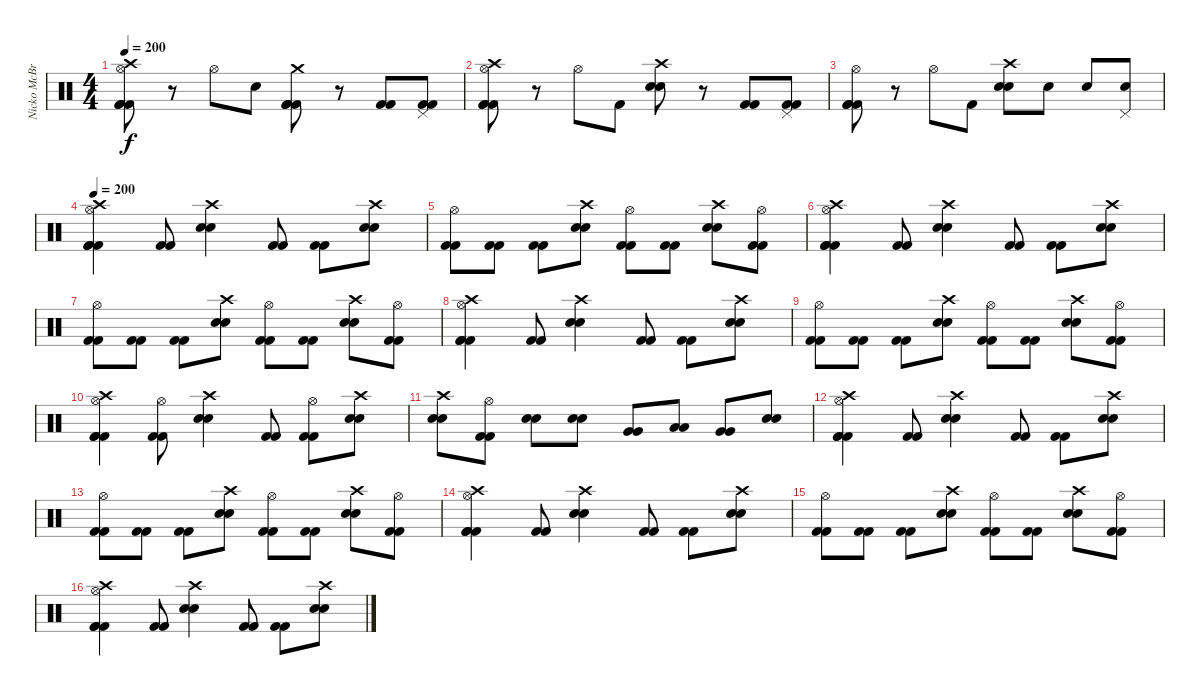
\track ("Nicko McBrain" "Nicko McBr") {instrument percussion}
\staff {score}
\articulation defaults
\ts (4 4)
\tempo 200
\clef neutral
\ks c
("Crash high (hit)" "Hi-Hat (open)" "Kick (hit) 2" "Kick (hit) 2" "Kick (hit) 2").8{dy f} r.8 "Hi-Hat (open)".8 "Snare (hit) 2".8 ("Crash medium (hit)" "Kick (hit) 2" "Kick (hit) 2" "Kick (hit) 2").8 r.8 ("Kick (hit) 2" "Kick (hit) 2").8 ("Pedal Hi-Hat (hit)" "Kick (hit) 2" "Kick (hit) 2").8 |
("Crash high (hit)" "Hi-Hat (open)" "Kick (hit) 2" "Kick (hit) 2" "Kick (hit) 2").8 r.8 "Hi-Hat (open)".8 "Kick (hit) 2".8 ("Crash high (hit)" "Snare (hit) 2" "Snare (hit) 2").8 r.8 ("Kick (hit) 2" "Kick (hit) 2").8 ("Pedal Hi-Hat (hit)" "Kick (hit) 2" "Kick (hit) 2").8 |
("Hi-Hat (open)" "Kick (hit) 2" "Kick (hit) 2" "Kick (hit) 2").8 r.8 "Hi-Hat (open)".8 "Kick (hit) 2".8 ("Crash high (hit)" "Snare (hit) 2" "Snare (hit) 2").8 "Snare (hit) 2".8 "Snare (hit) 2".8 ("Pedal Hi-Hat (hit)" "Snare (hit) 2").8 |
\tempo 200
("Crash high (hit)" "Hi-Hat (open)" "Kick (hit) 2" "Kick (hit) 2" "Kick (hit) 2").4 ("Kick (hit) 2" "Kick (hit) 2").8 ("Crash high (hit)" "Snare (hit) 2" "Snare (hit) 2").4 ("Kick (hit) 2" "Kick (hit) 2").8 ("Kick (hit) 2" "Kick (hit) 2").8 ("Crash high (hit)" "Snare (hit) 2" "Snare (hit) 2").8 |
("Hi-Hat (open)" "Kick (hit) 2" "Kick (hit) 2").8 ("Kick (hit) 2" "Kick (hit) 2").8 ("Kick (hit) 2" "Kick (hit) 2").8 ("Crash high (hit)" "Snare (hit) 2" "Snare (hit) 2").8 ("Hi-Hat (open)" "Kick (hit) 2" "Kick (hit) 2").8 ("Kick (hit) 2" "Kick (hit) 2").8 ("Crash high (hit)" "Snare (hit) 2" "Snare (hit) 2").8 ("Hi-Hat (open)" "Kick (hit) 2" "Kick (hit) 2").8 |
("Crash high (hit)" "Hi-Hat (open)" "Kick (hit) 2" "Kick (hit) 2" "Kick (hit) 2").4 ("Kick (hit) 2" "Kick (hit) 2").8 ("Crash high (hit)" "Snare (hit) 2" "Snare (hit) 2").4 ("Kick (hit) 2" "Kick (hit) 2").8 ("Kick (hit) 2" "Kick (hit) 2").8 ("Crash high (hit)" "Snare (hit) 2" "Snare (hit) 2").8 |
("Hi-Hat (open)" "Kick (hit) 2" "Kick (hit) 2").8 ("Kick (hit) 2" "Kick (hit) 2").8 ("Kick (hit) 2" "Kick (hit) 2").8 ("Crash high (hit)" "Snare (hit) 2" "Snare (hit) 2").8 ("Hi-Hat (open)" "Kick (hit) 2" "Kick (hit) 2").8 ("Kick (hit) 2" "Kick (hit) 2").8 ("Crash high (hit)" "Snare (hit) 2" "Snare (hit) 2").8 ("Hi-Hat (open)" "Kick (hit) 2" "Kick (hit) 2").8 |
("Crash high (hit)" "Hi-Hat (open)" "Kick (hit) 2" "Kick (hit) 2" "Kick (hit) 2").4 ("Kick (hit) 2" "Kick (hit) 2").8 ("Crash high (hit)" "Snare (hit) 2" "Snare (hit) 2").4 ("Kick (hit) 2" "Kick (hit) 2").8 ("Kick (hit) 2" "Kick (hit) 2").8 ("Crash high (hit)" "Snare (hit) 2" "Snare (hit) 2").8 |
("Hi-Hat (open)" "Kick (hit) 2" "Kick (hit) 2").8 ("Kick (hit) 2" "Kick (hit) 2").8 ("Kick (hit) 2" "Kick (hit) 2").8 ("Crash high (hit)" "Snare (hit) 2" "Snare (hit) 2").8 ("Hi-Hat (open)" "Kick (hit) 2" "Kick (hit) 2").8 ("Kick (hit) 2" "Kick (hit) 2").8 ("Crash high (hit)" "Snare (hit) 2" "Snare (hit) 2").8 ("Hi-Hat (open)" "Kick (hit) 2" "Kick (hit) 2").8 |
("Crash high (hit)" "Hi-Hat (open)" "Kick (hit) 2" "Kick (hit) 2" "Kick (hit) 2").4 ("Hi-Hat (open)" "Kick (hit) 2" "Kick (hit) 2").8 ("Crash high (hit)" "Snare (hit) 2" "Snare (hit) 2").4 ("Kick (hit) 2" "Kick (hit) 2").8 ("Hi-Hat (open)" "Kick (hit) 2" "Kick (hit) 2").8 ("Crash high (hit)" "Snare (hit) 2" "Snare (hit) 2").8 |
("Crash high (hit)" "Snare (hit) 2" "Snare (hit) 2").8 ("Hi-Hat (open)" "Kick (hit) 2" "Kick (hit) 2").8 ("Snare (hit) 2" "Snare (hit) 2").8 ("Snare (hit) 2" "Snare (hit) 2").8 ("Very Low Tom (hit)" "Very Low Tom (hit)").8 ("Low Floor Tom (hit)" "Low Floor Tom (hit)").8 ("Very Low Tom (hit)" "Very Low Tom (hit)").8 ("Snare (hit) 2" "Snare (hit) 2").8 |
("Crash high (hit)" "Hi-Hat (open)" "Kick (hit) 2" "Kick (hit) 2" "Kick (hit) 2").4 ("Kick (hit) 2" "Kick (hit) 2").8 ("Crash high (hit)" "Snare (hit) 2" "Snare (hit) 2").4 ("Kick (hit) 2" "Kick (hit) 2").8 ("Kick (hit) 2" "Kick (hit) 2").8 ("Crash high (hit)" "Snare (hit) 2" "Snare (hit) 2").8 |
("Hi-Hat (open)" "Kick (hit) 2" "Kick (hit) 2").8 ("Kick (hit) 2" "Kick (hit) 2").8 ("Kick (hit) 2" "Kick (hit) 2").8 ("Crash high (hit)" "Snare (hit) 2" "Snare (hit) 2").8 ("Hi-Hat (open)" "Kick (hit) 2" "Kick (hit) 2").8 ("Kick (hit) 2" "Kick (hit) 2").8 ("Crash high (hit)" "Snare (hit) 2" "Snare (hit) 2").8 ("Hi-Hat (open)" "Kick (hit) 2" "Kick (hit) 2").8 |
("Crash high (hit)" "Hi-Hat (open)" "Kick (hit) 2" "Kick (hit) 2" "Kick (hit) 2").4 ("Kick (hit) 2" "Kick (hit) 2").8 ("Crash high (hit)" "Snare (hit) 2" "Snare (hit) 2").4 ("Kick (hit) 2" "Kick (hit) 2").8 ("Kick (hit) 2" "Kick (hit) 2").8 ("Crash high (hit)" "Snare (hit) 2" "Snare (hit) 2").8 |
("Hi-Hat (open)" "Kick (hit) 2" "Kick (hit) 2").8 ("Kick (hit) 2" "Kick (hit) 2").8 ("Kick (hit) 2" "Kick (hit) 2").8 ("Crash high (hit)" "Snare (hit) 2" "Snare (hit) 2").8 ("Hi-Hat (open)" "Kick (hit) 2" "Kick (hit) 2").8 ("Kick (hit) 2" "Kick (hit) 2").8 ("Crash high (hit)" "Snare (hit) 2" "Snare (hit) 2").8 ("Hi-Hat (open)" "Kick (hit) 2" "Kick (hit) 2").8 |
("Crash high (hit)" "Hi-Hat (open)" "Kick (hit) 2" "Kick (hit) 2" "Kick (hit) 2").4 ("Kick (hit) 2" "Kick (hit) 2").8 ("Crash high (hit)" "Snare (hit) 2" "Snare (hit) 2").4 ("Kick (hit) 2" "Kick (hit) 2").8 ("Kick (hit) 2" "Kick (hit) 2").8 ("Crash high (hit)" "Snare (hit) 2" "Snare (hit) 2").8
